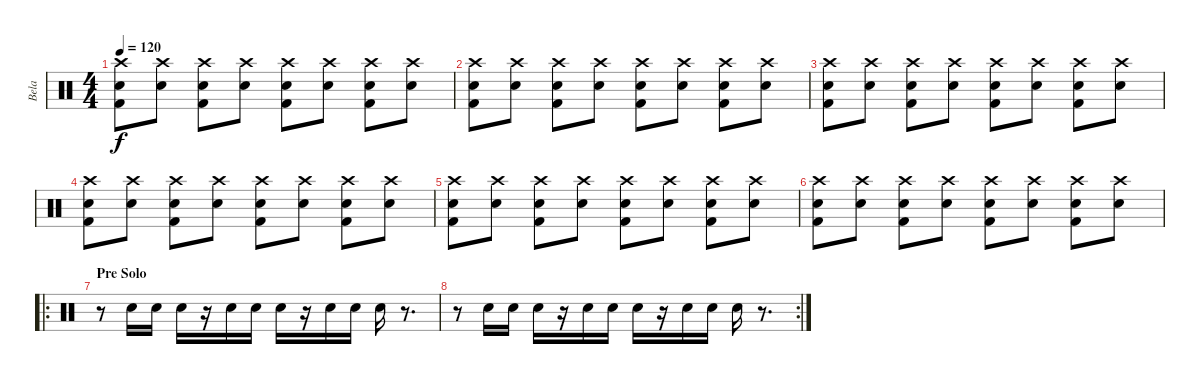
\track ("Bela" "Bela") {instrument percussion}
\staff {score}
\articulation defaults
\ts (4 4)
\tempo 120
\clef neutral
\ks c
("Crash high (hit)" "Electric Snare (hit)" "Kick (hit) 2").8{dy f} ("Crash high (hit)" "Electric Snare (hit)").8 ("Crash high (hit)" "Electric Snare (hit)" "Kick (hit) 2").8 ("Crash high (hit)" "Electric Snare (hit)").8 ("Crash high (hit)" "Electric Snare (hit)" "Kick (hit) 2").8 ("Crash high (hit)" "Electric Snare (hit)").8 ("Crash high (hit)" "Electric Snare (hit)" "Kick (hit) 2").8 ("Crash high (hit)" "Electric Snare (hit)").8 |
("Crash high (hit)" "Electric Snare (hit)" "Kick (hit) 2").8 ("Crash high (hit)" "Electric Snare (hit)").8 ("Crash high (hit)" "Electric Snare (hit)" "Kick (hit) 2").8 ("Crash high (hit)" "Electric Snare (hit)").8 ("Crash high (hit)" "Electric Snare (hit)" "Kick (hit) 2").8 ("Crash high (hit)" "Electric Snare (hit)").8 ("Crash high (hit)" "Electric Snare (hit)" "Kick (hit) 2").8 ("Crash high (hit)" "Electric Snare (hit)").8 |
("Crash high (hit)" "Electric Snare (hit)" "Kick (hit) 2").8 ("Crash high (hit)" "Electric Snare (hit)").8 ("Crash high (hit)" "Electric Snare (hit)" "Kick (hit) 2").8 ("Crash high (hit)" "Electric Snare (hit)").8 ("Crash high (hit)" "Electric Snare (hit)" "Kick (hit) 2").8 ("Crash high (hit)" "Electric Snare (hit)").8 ("Crash high (hit)" "Electric Snare (hit)" "Kick (hit) 2").8 ("Crash high (hit)" "Electric Snare (hit)").8 |
("Crash high (hit)" "Electric Snare (hit)" "Kick (hit) 2").8 ("Crash high (hit)" "Electric Snare (hit)").8 ("Crash high (hit)" "Electric Snare (hit)" "Kick (hit) 2").8 ("Crash high (hit)" "Electric Snare (hit)").8 ("Crash high (hit)" "Electric Snare (hit)" "Kick (hit) 2").8 ("Crash high (hit)" "Electric Snare (hit)").8 ("Crash high (hit)" "Electric Snare (hit)" "Kick (hit) 2").8 ("Crash high (hit)" "Electric Snare (hit)").8 |
("Crash high (hit)" "Electric Snare (hit)" "Kick (hit) 2").8 ("Crash high (hit)" "Electric Snare (hit)").8 ("Crash high (hit)" "Electric Snare (hit)" "Kick (hit) 2").8 ("Crash high (hit)" "Electric Snare (hit)").8 ("Crash high (hit)" "Electric Snare (hit)" "Kick (hit) 2").8 ("Crash high (hit)" "Electric Snare (hit)").8 ("Crash high (hit)" "Electric Snare (hit)" "Kick (hit) 2").8 ("Crash high (hit)" "Electric Snare (hit)").8 |
("Crash high (hit)" "Electric Snare (hit)" "Kick (hit) 2").8 ("Crash high (hit)" "Electric Snare (hit)").8 ("Crash high (hit)" "Electric Snare (hit)" "Kick (hit) 2").8 ("Crash high (hit)" "Electric Snare (hit)").8 ("Crash high (hit)" "Electric Snare (hit)" "Kick (hit) 2").8 ("Crash high (hit)" "Electric Snare (hit)").8 ("Crash high (hit)" "Electric Snare (hit)" "Kick (hit) 2").8 ("Crash high (hit)" "Electric Snare (hit)").8 |
\ro
\section ("" "Pre Solo")
r.8 "Electric Snare (hit)".16 "Electric Snare (hit)".16 "Electric Snare (hit)".16 r.16 "Electric Snare (hit)".16 "Electric Snare (hit)".16 "Electric Snare (hit)".16 r.16 "Electric Snare (hit)".16 "Electric Snare (hit)".16 "Electric Snare (hit)".16 r.8{d} |
\rc 2
r.8 "Electric Snare (hit)".16 "Electric Snare (hit)".16 "Electric Snare (hit)".16 r.16 "Electric Snare (hit)".16 "Electric Snare (hit)".16 "Electric Snare (hit)".16 r.16 "Electric Snare (hit)".16 "Electric Snare (hit)".16 "Electric Snare (hit)".16 r.8{d}
